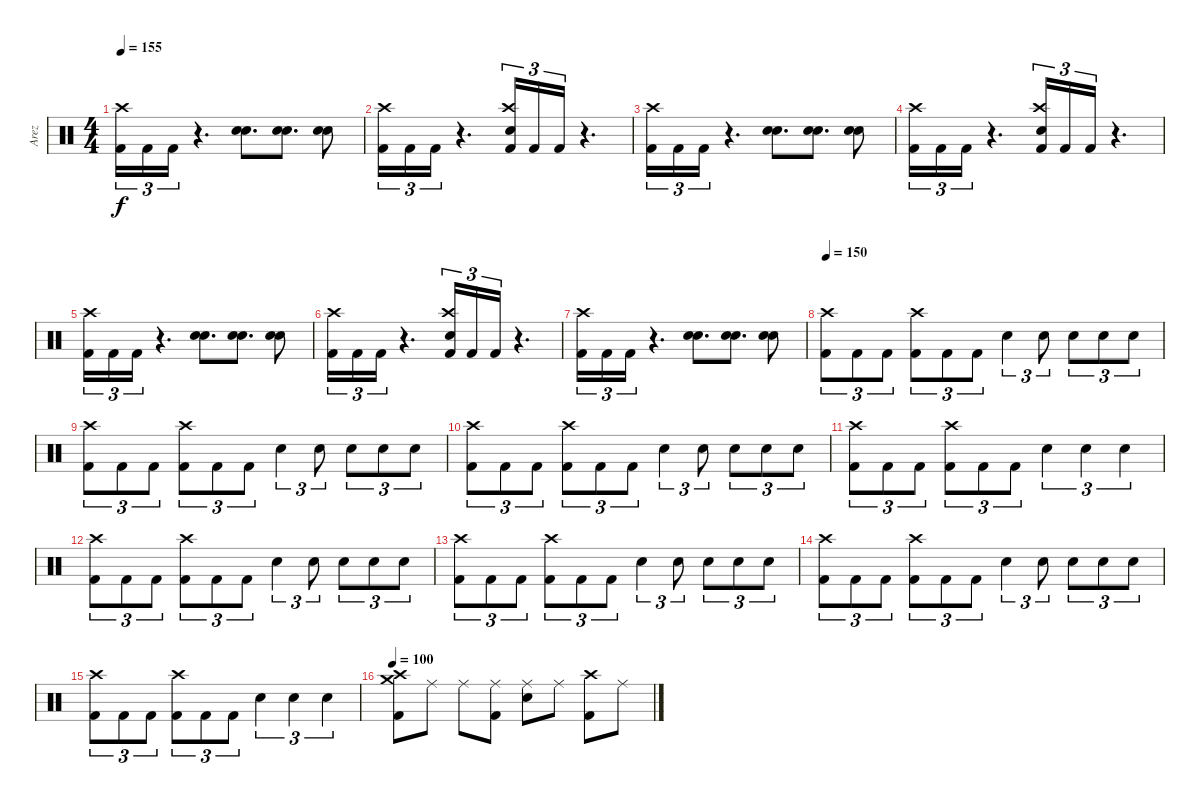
\track ("Arez" "Arez") {instrument percussion}
\staff {score}
\articulation defaults
\ts (4 4)
\tempo 155
\clef neutral
\ks c
("Kick (hit) 2" "Crash high (hit)").16{tu (3 2) dy f} "Kick (hit) 2".16{tu (3 2)} "Kick (hit) 2".16{tu (3 2)} r.4{d} ("Electric Snare (hit)" "Electric Snare (hit)").8{d} ("Electric Snare (hit)" "Electric Snare (hit)").8{d} ("Electric Snare (hit)" "Electric Snare (hit)").8 |
("Kick (hit) 2" "Crash high (hit)").16{tu (3 2)} "Kick (hit) 2".16{tu (3 2)} "Kick (hit) 2".16{tu (3 2)} r.4{d} ("Kick (hit) 2" "Crash high (hit)" "Electric Snare (hit)").16{tu (3 2)} "Kick (hit) 2".16{tu (3 2)} "Kick (hit) 2".16{tu (3 2)} r.4{d} |
("Kick (hit) 2" "Crash high (hit)").16{tu (3 2)} "Kick (hit) 2".16{tu (3 2)} "Kick (hit) 2".16{tu (3 2)} r.4{d} ("Electric Snare (hit)" "Electric Snare (hit)").8{d} ("Electric Snare (hit)" "Electric Snare (hit)").8{d} ("Electric Snare (hit)" "Electric Snare (hit)").8 |
("Kick (hit) 2" "Crash high (hit)").16{tu (3 2)} "Kick (hit) 2".16{tu (3 2)} "Kick (hit) 2".16{tu (3 2)} r.4{d} ("Kick (hit) 2" "Crash high (hit)" "Electric Snare (hit)").16{tu (3 2)} "Kick (hit) 2".16{tu (3 2)} "Kick (hit) 2".16{tu (3 2)} r.4{d} |
("Kick (hit) 2" "Crash high (hit)").16{tu (3 2)} "Kick (hit) 2".16{tu (3 2)} "Kick (hit) 2".16{tu (3 2)} r.4{d} ("Electric Snare (hit)" "Electric Snare (hit)").8{d} ("Electric Snare (hit)" "Electric Snare (hit)").8{d} ("Electric Snare (hit)" "Electric Snare (hit)").8 |
("Kick (hit) 2" "Crash high (hit)").16{tu (3 2)} "Kick (hit) 2".16{tu (3 2)} "Kick (hit) 2".16{tu (3 2)} r.4{d} ("Kick (hit) 2" "Crash high (hit)" "Electric Snare (hit)").16{tu (3 2)} "Kick (hit) 2".16{tu (3 2)} "Kick (hit) 2".16{tu (3 2)} r.4{d} |
("Kick (hit) 2" "Crash high (hit)").16{tu (3 2)} "Kick (hit) 2".16{tu (3 2)} "Kick (hit) 2".16{tu (3 2)} r.4{d} ("Electric Snare (hit)" "Electric Snare (hit)").8{d} ("Electric Snare (hit)" "Electric Snare (hit)").8{d} ("Electric Snare (hit)" "Electric Snare (hit)").8 |
\tempo 150
("Crash high (hit)" "Kick (hit) 2").8{tu (3 2)} "Kick (hit) 2".8{tu (3 2)} "Kick (hit) 2".8{tu (3 2)} ("Kick (hit) 2" "Crash high (hit)").8{tu (3 2)} "Kick (hit) 2".8{tu (3 2)} "Kick (hit) 2".8{tu (3 2)} "Electric Snare (hit)".4{tu (3 2)} "Electric Snare (hit)".8{tu (3 2)} "Electric Snare (hit)".8{tu (3 2)} "Electric Snare (hit)".8{tu (3 2)} "Electric Snare (hit)".8{tu (3 2)} |
("Crash high (hit)" "Kick (hit) 2").8{tu (3 2)} "Kick (hit) 2".8{tu (3 2)} "Kick (hit) 2".8{tu (3 2)} ("Kick (hit) 2" "Crash high (hit)").8{tu (3 2)} "Kick (hit) 2".8{tu (3 2)} "Kick (hit) 2".8{tu (3 2)} "Electric Snare (hit)".4{tu (3 2)} "Electric Snare (hit)".8{tu (3 2)} "Electric Snare (hit)".8{tu (3 2)} "Electric Snare (hit)".8{tu (3 2)} "Electric Snare (hit)".8{tu (3 2)} |
("Crash high (hit)" "Kick (hit) 2").8{tu (3 2)} "Kick (hit) 2".8{tu (3 2)} "Kick (hit) 2".8{tu (3 2)} ("Kick (hit) 2" "Crash high (hit)").8{tu (3 2)} "Kick (hit) 2".8{tu (3 2)} "Kick (hit) 2".8{tu (3 2)} "Electric Snare (hit)".4{tu (3 2)} "Electric Snare (hit)".8{tu (3 2)} "Electric Snare (hit)".8{tu (3 2)} "Electric Snare (hit)".8{tu (3 2)} "Electric Snare (hit)".8{tu (3 2)} |
("Crash high (hit)" "Kick (hit) 2").8{tu (3 2)} "Kick (hit) 2".8{tu (3 2)} "Kick (hit) 2".8{tu (3 2)} ("Kick (hit) 2" "Crash high (hit)").8{tu (3 2)} "Kick (hit) 2".8{tu (3 2)} "Kick (hit) 2".8{tu (3 2)} "Electric Snare (hit)".4{tu (3 2)} "Electric Snare (hit)".4{tu (3 2)} "Electric Snare (hit)".4{tu (3 2)} |
("Crash high (hit)" "Kick (hit) 2").8{tu (3 2)} "Kick (hit) 2".8{tu (3 2)} "Kick (hit) 2".8{tu (3 2)} ("Kick (hit) 2" "Crash high (hit)").8{tu (3 2)} "Kick (hit) 2".8{tu (3 2)} "Kick (hit) 2".8{tu (3 2)} "Electric Snare (hit)".4{tu (3 2)} "Electric Snare (hit)".8{tu (3 2)} "Electric Snare (hit)".8{tu (3 2)} "Electric Snare (hit)".8{tu (3 2)} "Electric Snare (hit)".8{tu (3 2)} |
("Crash high (hit)" "Kick (hit) 2").8{tu (3 2)} "Kick (hit) 2".8{tu (3 2)} "Kick (hit) 2".8{tu (3 2)} ("Kick (hit) 2" "Crash high (hit)").8{tu (3 2)} "Kick (hit) 2".8{tu (3 2)} "Kick (hit) 2".8{tu (3 2)} "Electric Snare (hit)".4{tu (3 2)} "Electric Snare (hit)".8{tu (3 2)} "Electric Snare (hit)".8{tu (3 2)} "Electric Snare (hit)".8{tu (3 2)} "Electric Snare (hit)".8{tu (3 2)} |
("Crash high (hit)" "Kick (hit) 2").8{tu (3 2)} "Kick (hit) 2".8{tu (3 2)} "Kick (hit) 2".8{tu (3 2)} ("Kick (hit) 2" "Crash high (hit)").8{tu (3 2)} "Kick (hit) 2".8{tu (3 2)} "Kick (hit) 2".8{tu (3 2)} "Electric Snare (hit)".4{tu (3 2)} "Electric Snare (hit)".8{tu (3 2)} "Electric Snare (hit)".8{tu (3 2)} "Electric Snare (hit)".8{tu (3 2)} "Electric Snare (hit)".8{tu (3 2)} |
("Crash high (hit)" "Kick (hit) 2").8{tu (3 2)} "Kick (hit) 2".8{tu (3 2)} "Kick (hit) 2".8{tu (3 2)} ("Kick (hit) 2" "Crash high (hit)").8{tu (3 2)} "Kick (hit) 2".8{tu (3 2)} "Kick (hit) 2".8{tu (3 2)} "Electric Snare (hit)".4{tu (3 2)} "Electric Snare (hit)".4{tu (3 2)} "Electric Snare (hit)".4{tu (3 2)} |
\tempo 100
("Crash high (hit)" "Kick (hit) 2" "Crash medium (hit)").8 "Ride (middle)".8 "Ride (middle)".8 ("Ride (middle)" "Kick (hit) 2").8 ("Electric Snare (hit)" "Ride (middle)").8 "Ride (middle)".8 ("Kick (hit) 2" "Crash high (hit)").8 "Ride (middle)".8
